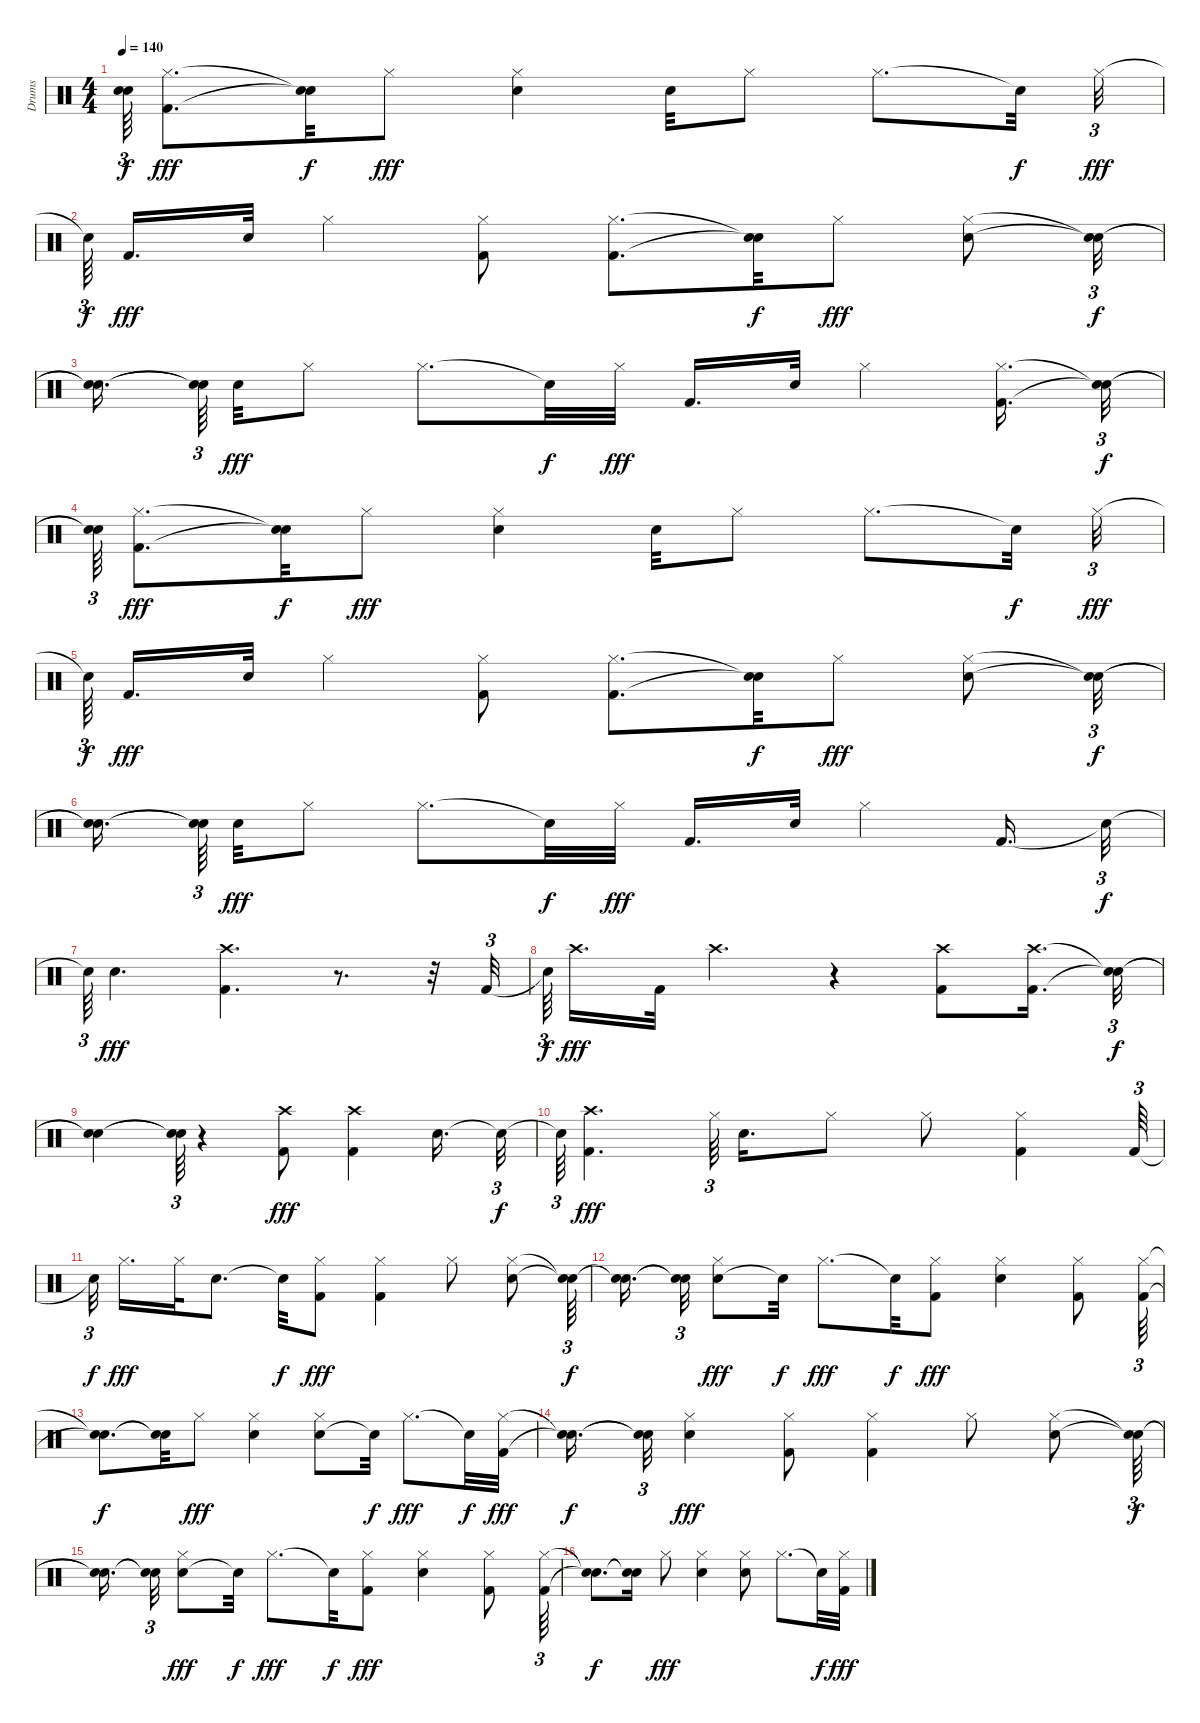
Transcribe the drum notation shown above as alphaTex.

\track ("Drums" "Drums") {instrument percussion}
\staff {score}
\articulation defaults
\ts (4 4)
\tempo 140
\clef neutral
\ks c
("Snare (hit)"{t} "Snare (hit)"{t}).64{tu (3 2) dy f} ("Hi-Hat (closed)" "Kick (hit) 2").8{d dy fff} ("Snare (hit)"{t} "Snare (hit)"{t}).32{dy f} "Hi-Hat (closed)".8{dy fff} ("Snare (hit) 2" "Hi-Hat (closed)").4 "Snare (hit) 2".32 "Hi-Hat (closed)".8 "Hi-Hat (closed)".8{d} "Snare (hit)"{t}.32{dy f} "Hi-Hat (closed)".32{tu (3 2) dy fff} |
"Snare (hit)"{t}.64{tu (3 2) dy f} "Kick (hit) 2".16{d dy fff} "Electric Snare (hit)".32 "Hi-Hat (closed)".4 ("Kick (hit) 2" "Hi-Hat (closed)").8 ("Kick (hit) 2" "Hi-Hat (closed)").8{d} ("Snare (hit)"{t} "Snare (hit)"{t}).32{dy f} "Hi-Hat (closed)".8{dy fff} ("Snare (hit) 2" "Hi-Hat (closed)").8 ("Snare (hit)"{t} "Snare (hit)"{t}).32{tu (3 2) dy f} |
("Snare (hit)"{t} "Snare (hit)"{t}).16{d} ("Snare (hit)"{t} "Snare (hit)"{t}).64{tu (3 2)} "Snare (hit) 2".32{dy fff} "Hi-Hat (closed)".8 "Hi-Hat (closed)".8{d} "Snare (hit)"{t}.32{dy f} "Hi-Hat (closed)".32{dy fff} "Kick (hit) 2".16{d} "Electric Snare (hit)".32 "Hi-Hat (closed)".4 ("Kick (hit) 2" "Hi-Hat (closed)").16{d} ("Snare (hit)"{t} "Snare (hit)"{t}).32{tu (3 2) dy f} |
("Snare (hit)"{t} "Snare (hit)"{t}).64{tu (3 2)} ("Kick (hit) 2" "Hi-Hat (closed)").8{d dy fff} ("Snare (hit)"{t} "Snare (hit)"{t}).32{dy f} "Hi-Hat (closed)".8{dy fff} ("Snare (hit) 2" "Hi-Hat (closed)").4 "Snare (hit) 2".32 "Hi-Hat (closed)".8 "Hi-Hat (closed)".8{d} "Snare (hit)"{t}.32{dy f} "Hi-Hat (closed)".32{tu (3 2) dy fff} |
"Snare (hit)"{t}.64{tu (3 2) dy f} "Kick (hit) 2".16{d dy fff} "Electric Snare (hit)".32 "Hi-Hat (closed)".4 ("Hi-Hat (closed)" "Kick (hit) 2").8 ("Hi-Hat (closed)" "Kick (hit) 2").8{d} ("Snare (hit)"{t} "Snare (hit)"{t}).32{dy f} "Hi-Hat (closed)".8{dy fff} ("Snare (hit) 2" "Hi-Hat (closed)").8 ("Snare (hit)"{t} "Snare (hit)"{t}).32{tu (3 2) dy f} |
("Snare (hit)"{t} "Snare (hit)"{t}).16{d} ("Snare (hit)"{t} "Snare (hit)"{t}).64{tu (3 2)} "Snare (hit) 2".32{dy fff} "Hi-Hat (closed)".8 "Hi-Hat (closed)".8{d} "Snare (hit)"{t}.32{dy f} "Hi-Hat (closed)".32{dy fff} "Kick (hit) 2".16{d} "Electric Snare (hit)".32 "Hi-Hat (closed)".4 "Kick (hit) 2".16{d} "Snare (hit)"{t}.32{tu (3 2) dy f} |
"Snare (hit)"{t}.64{tu (3 2)} "Snare (hit) 2".4{d dy fff} ("Crash high (hit)" "Kick (hit) 2").4{d} r.8{d} r.32 "Kick (hit) 2".32{tu (3 2)} |
"Snare (hit)"{t}.64{tu (3 2) dy f} "Crash high (hit)".16{d dy fff} "Kick (hit) 2".32 "Crash high (hit)".4{d} r.4 ("Kick (hit) 2" "Crash high (hit)").8 ("Kick (hit) 2" "Crash high (hit)").16{d} ("Snare (hit)"{t} "Snare (hit)"{t}).32{tu (3 2) dy f} |
("Snare (hit)"{t} "Snare (hit)"{t}).4 ("Snare (hit)"{t} "Snare (hit)"{t}).64{tu (3 2)} r.4 ("Kick (hit) 2" "Crash high (hit)").8{dy fff} ("Crash high (hit)" "Kick (hit) 2").4 "Snare (hit) 2".16{d} "Snare (hit)"{t}.32{tu (3 2) dy f} |
"Snare (hit)"{t}.64{tu (3 2)} ("Kick (hit) 2" "Crash high (hit)").4{d dy fff} "Hi-Hat (closed)".64{tu (3 2)} "Snare (hit) 2".16{d} "Hi-Hat (closed)".8 "Hi-Hat (closed)".8 ("Kick (hit) 2" "Hi-Hat (closed)").4 "Kick (hit) 2".64{tu (3 2)} |
"Snare (hit)"{t}.32{tu (3 2) dy f} "Hi-Hat (closed)".16{d dy fff} "Hi-Hat (closed)".32 "Snare (hit) 2".8{d} "Snare (hit)"{t}.32{dy f} ("Kick (hit) 2" "Hi-Hat (closed)").8{dy fff} ("Kick (hit) 2" "Hi-Hat (closed)").4 "Hi-Hat (closed)".8 ("Snare (hit) 2" "Hi-Hat (closed)").8 ("Snare (hit)"{t} "Snare (hit)"{t}).64{tu (3 2) dy f} |
("Snare (hit)"{t} "Snare (hit)"{t}).16{d} ("Snare (hit)"{t} "Snare (hit)"{t}).32{tu (3 2)} ("Snare (hit) 2" "Hi-Hat (closed)").8{dy fff} "Snare (hit)"{t}.32{dy f} "Hi-Hat (closed)".8{d dy fff} "Snare (hit)"{t}.32{dy f} ("Hi-Hat (closed)" "Kick (hit) 2").8{dy fff} ("Electric Snare (hit)" "Hi-Hat (closed)").4 ("Hi-Hat (closed)" "Kick (hit) 2").8 ("Kick (hit) 2" "Hi-Hat (closed)").64{tu (3 2)} |
("Snare (hit)"{t} "Snare (hit)"{t}).8{d dy f} ("Snare (hit)"{t} "Snare (hit)"{t}).32 "Hi-Hat (closed)".8{dy fff} ("Snare (hit) 2" "Hi-Hat (closed)").4 ("Snare (hit) 2" "Hi-Hat (closed)").8 "Snare (hit)"{t}.32{dy f} "Hi-Hat (closed)".8{d dy fff} "Snare (hit)"{t}.32{dy f} ("Hi-Hat (closed)" "Kick (hit) 2").32{dy fff} |
("Snare (hit)"{t} "Snare (hit)"{t}).16{d dy f} ("Snare (hit)"{t} "Snare (hit)"{t}).32{tu (3 2)} ("Electric Snare (hit)" "Hi-Hat (closed)").4{dy fff} ("Hi-Hat (closed)" "Kick (hit) 2").8 ("Hi-Hat (closed)" "Kick (hit) 2").4 "Hi-Hat (closed)".8 ("Snare (hit) 2" "Hi-Hat (closed)").8 ("Snare (hit)"{t} "Snare (hit)"{t}).64{tu (3 2) dy f} |
("Snare (hit)"{t} "Snare (hit)"{t}).16{d} ("Snare (hit)"{t} "Snare (hit)"{t}).32{tu (3 2)} ("Snare (hit) 2" "Hi-Hat (closed)").8{dy fff} "Snare (hit)"{t}.32{dy f} "Hi-Hat (closed)".8{d dy fff} "Snare (hit)"{t}.32{dy f} ("Hi-Hat (closed)" "Kick (hit) 2").8{dy fff} ("Electric Snare (hit)" "Hi-Hat (closed)").4 ("Kick (hit) 2" "Hi-Hat (closed)").8 ("Hi-Hat (closed)" "Kick (hit) 2").64{tu (3 2)} |
("Snare (hit)"{t} "Snare (hit)"{t}).8{d dy f} ("Snare (hit)"{t} "Snare (hit)"{t}).16 "Hi-Hat (closed)".8{dy fff} ("Snare (hit) 2" "Hi-Hat (closed)").4 ("Snare (hit) 2" "Hi-Hat (closed)").8 "Hi-Hat (closed)".8{d} "Snare (hit)"{t}.32{dy f} ("Hi-Hat (closed)" "Kick (hit) 2").32{dy fff}
